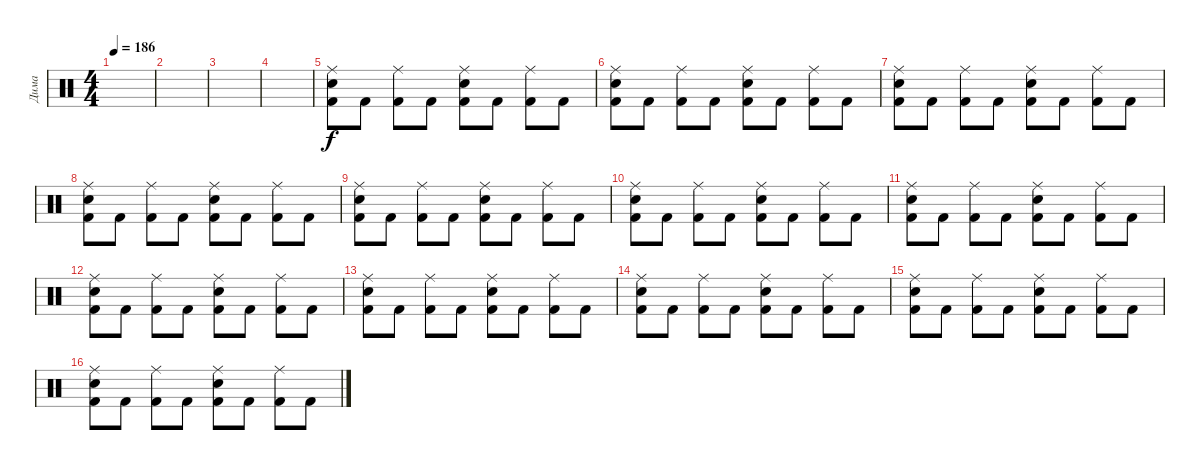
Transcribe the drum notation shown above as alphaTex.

\track ("Дима" "Дима") {instrument percussion}
\staff {score}
\articulation defaults
\ts (4 4)
\tempo 186
\clef neutral
\ks c
|
|
|
|
("Ride (middle)" "Snare (hit) 2" "Kick (hit) 2").8 "Kick (hit) 2".8 ("Ride (middle)" "Kick (hit) 2").8 "Kick (hit) 2".8 ("Ride (middle)" "Snare (hit) 2" "Kick (hit) 2").8 "Kick (hit) 2".8 ("Ride (middle)" "Kick (hit) 2").8 "Kick (hit) 2".8 |
("Ride (middle)" "Snare (hit) 2" "Kick (hit) 2").8 "Kick (hit) 2".8 ("Ride (middle)" "Kick (hit) 2").8 "Kick (hit) 2".8 ("Ride (middle)" "Snare (hit) 2" "Kick (hit) 2").8 "Kick (hit) 2".8 ("Ride (middle)" "Kick (hit) 2").8 "Kick (hit) 2".8 |
("Ride (middle)" "Snare (hit) 2" "Kick (hit) 2").8 "Kick (hit) 2".8 ("Ride (middle)" "Kick (hit) 2").8 "Kick (hit) 2".8 ("Ride (middle)" "Snare (hit) 2" "Kick (hit) 2").8 "Kick (hit) 2".8 ("Ride (middle)" "Kick (hit) 2").8 "Kick (hit) 2".8 |
("Ride (middle)" "Snare (hit) 2" "Kick (hit) 2").8 "Kick (hit) 2".8 ("Ride (middle)" "Kick (hit) 2").8 "Kick (hit) 2".8 ("Ride (middle)" "Snare (hit) 2" "Kick (hit) 2").8 "Kick (hit) 2".8 ("Ride (middle)" "Kick (hit) 2").8 "Kick (hit) 2".8 |
("Ride (middle)" "Snare (hit) 2" "Kick (hit) 2").8 "Kick (hit) 2".8 ("Ride (middle)" "Kick (hit) 2").8 "Kick (hit) 2".8 ("Ride (middle)" "Snare (hit) 2" "Kick (hit) 2").8 "Kick (hit) 2".8 ("Ride (middle)" "Kick (hit) 2").8 "Kick (hit) 2".8 |
("Ride (middle)" "Snare (hit) 2" "Kick (hit) 2").8 "Kick (hit) 2".8 ("Ride (middle)" "Kick (hit) 2").8 "Kick (hit) 2".8 ("Ride (middle)" "Snare (hit) 2" "Kick (hit) 2").8 "Kick (hit) 2".8 ("Ride (middle)" "Kick (hit) 2").8 "Kick (hit) 2".8 |
("Ride (middle)" "Snare (hit) 2" "Kick (hit) 2").8 "Kick (hit) 2".8 ("Ride (middle)" "Kick (hit) 2").8 "Kick (hit) 2".8 ("Ride (middle)" "Snare (hit) 2" "Kick (hit) 2").8 "Kick (hit) 2".8 ("Ride (middle)" "Kick (hit) 2").8 "Kick (hit) 2".8 |
("Ride (middle)" "Snare (hit) 2" "Kick (hit) 2").8 "Kick (hit) 2".8 ("Ride (middle)" "Kick (hit) 2").8 "Kick (hit) 2".8 ("Ride (middle)" "Snare (hit) 2" "Kick (hit) 2").8 "Kick (hit) 2".8 ("Ride (middle)" "Kick (hit) 2").8 "Kick (hit) 2".8 |
("Ride (middle)" "Snare (hit) 2" "Kick (hit) 2").8 "Kick (hit) 2".8 ("Ride (middle)" "Kick (hit) 2").8 "Kick (hit) 2".8 ("Ride (middle)" "Snare (hit) 2" "Kick (hit) 2").8 "Kick (hit) 2".8 ("Ride (middle)" "Kick (hit) 2").8 "Kick (hit) 2".8 |
("Ride (middle)" "Snare (hit) 2" "Kick (hit) 2").8 "Kick (hit) 2".8 ("Ride (middle)" "Kick (hit) 2").8 "Kick (hit) 2".8 ("Ride (middle)" "Snare (hit) 2" "Kick (hit) 2").8 "Kick (hit) 2".8 ("Ride (middle)" "Kick (hit) 2").8 "Kick (hit) 2".8 |
("Ride (middle)" "Snare (hit) 2" "Kick (hit) 2").8 "Kick (hit) 2".8 ("Ride (middle)" "Kick (hit) 2").8 "Kick (hit) 2".8 ("Ride (middle)" "Snare (hit) 2" "Kick (hit) 2").8 "Kick (hit) 2".8 ("Ride (middle)" "Kick (hit) 2").8 "Kick (hit) 2".8 |
("Ride (middle)" "Snare (hit) 2" "Kick (hit) 2").8 "Kick (hit) 2".8 ("Ride (middle)" "Kick (hit) 2").8 "Kick (hit) 2".8 ("Ride (middle)" "Snare (hit) 2" "Kick (hit) 2").8 "Kick (hit) 2".8 ("Ride (middle)" "Kick (hit) 2").8 "Kick (hit) 2".8
